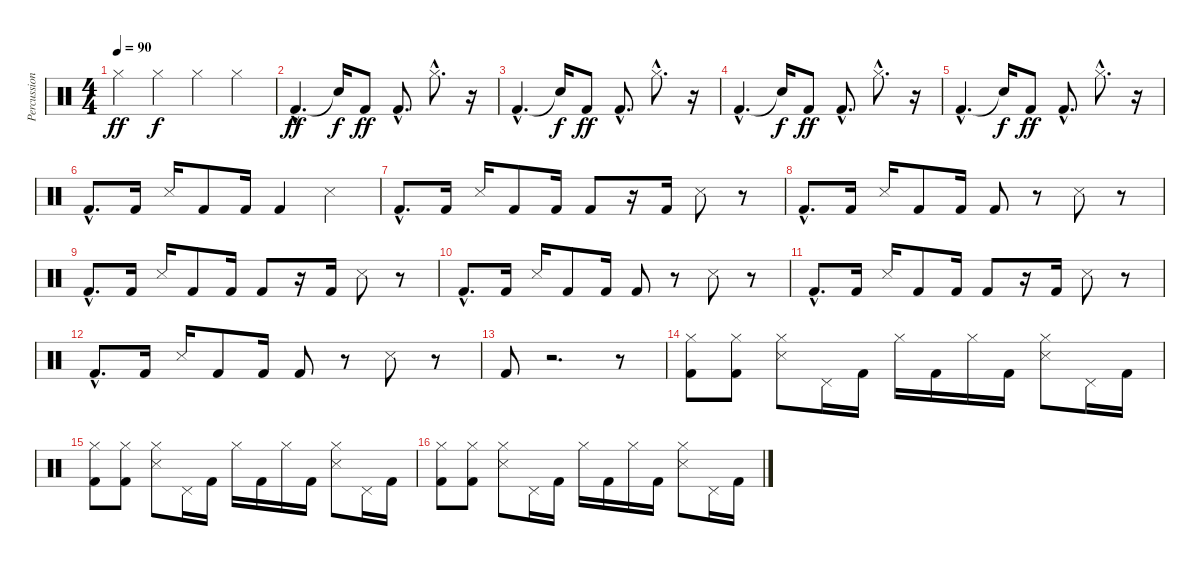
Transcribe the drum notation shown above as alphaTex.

\track ("Percussions" "Percussion") {instrument percussion}
\staff {score}
\articulation defaults
\ts (4 4)
\tempo 90
\clef neutral
\ks c "Hi-Hat (closed)".4{dy ff} "Hi-Hat (closed)".4{dy f} "Hi-Hat (closed)".4 "Hi-Hat (closed)".4
|
"Kick (hit) 2"{hac}.4{d dy ff} "Snare (hit)"{t}.16{dy f} "Kick (hit) 2".8{dy ff} "Kick (hit) 2"{hac}.8{d} "Hi-Hat (closed)"{hac}.8{d} r.16 |
"Kick (hit) 2"{hac}.4{d} "Snare (hit)"{t}.16{dy f} "Kick (hit) 2".8{dy ff} "Kick (hit) 2"{hac}.8{d} "Hi-Hat (closed)"{hac}.8{d} r.16 |
"Kick (hit) 2"{hac}.4{d} "Snare (hit)"{t}.16{dy f} "Kick (hit) 2".8{dy ff} "Kick (hit) 2"{hac}.8{d} "Hi-Hat (closed)"{hac}.8{d} r.16 |
"Kick (hit) 2"{hac}.4{d} "Snare (hit)"{t}.16{dy f} "Kick (hit) 2".8{dy ff} "Kick (hit) 2"{hac}.8{d} "Hi-Hat (closed)"{hac}.8{d} r.16 |
"Kick (hit) 2"{hac}.8{d} "Kick (hit) 2".16 "Snare (side stick) 3".16 "Kick (hit) 2".8 "Kick (hit) 2".16 "Kick (hit) 2".4 "Snare (side stick) 3".4 |
"Kick (hit) 2"{hac}.8{d} "Kick (hit) 2".16 "Snare (side stick) 3".16 "Kick (hit) 2".8 "Kick (hit) 2".16 "Kick (hit) 2".8 r.16 "Kick (hit) 2".16 "Snare (side stick) 3".8 r.8 |
"Kick (hit) 2"{hac}.8{d} "Kick (hit) 2".16 "Snare (side stick) 3".16 "Kick (hit) 2".8 "Kick (hit) 2".16 "Kick (hit) 2".8 r.8 "Snare (side stick) 3".8 r.8 |
"Kick (hit) 2"{hac}.8{d} "Kick (hit) 2".16 "Snare (side stick) 3".16 "Kick (hit) 2".8 "Kick (hit) 2".16 "Kick (hit) 2".8 r.16 "Kick (hit) 2".16 "Snare (side stick) 3".8 r.8 |
"Kick (hit) 2"{hac}.8{d} "Kick (hit) 2".16 "Snare (side stick) 3".16 "Kick (hit) 2".8 "Kick (hit) 2".16 "Kick (hit) 2".8 r.8 "Snare (side stick) 3".8 r.8 |
"Kick (hit) 2"{hac}.8{d} "Kick (hit) 2".16 "Snare (side stick) 3".16 "Kick (hit) 2".8 "Kick (hit) 2".16 "Kick (hit) 2".8 r.16 "Kick (hit) 2".16 "Snare (side stick) 3".8 r.8 |
"Kick (hit) 2"{hac}.8{d} "Kick (hit) 2".16 "Snare (side stick) 3".16 "Kick (hit) 2".8 "Kick (hit) 2".16 "Kick (hit) 2".8 r.8 "Snare (side stick) 3".8 r.8 |
"Kick (hit) 2".8 r.2{d} r.8 |
("Kick (hit) 2" "Hi-Hat (closed)").8 ("Kick (hit) 2" "Hi-Hat (closed)").8 ("Snare (side stick) 3" "Hi-Hat (closed)").8 "Pedal Hi-Hat (hit)".16 "Kick (hit) 2".16 "Hi-Hat (closed)".16 "Kick (hit) 2".16 "Hi-Hat (closed)".16 "Kick (hit) 2".16 ("Snare (side stick) 3" "Hi-Hat (closed)").8 "Pedal Hi-Hat (hit)".16 "Kick (hit) 2".16 |
("Kick (hit) 2" "Hi-Hat (closed)").8 ("Kick (hit) 2" "Hi-Hat (closed)").8 ("Snare (side stick) 3" "Hi-Hat (closed)").8 "Pedal Hi-Hat (hit)".16 "Kick (hit) 2".16 "Hi-Hat (closed)".16 "Kick (hit) 2".16 "Hi-Hat (closed)".16 "Kick (hit) 2".16 ("Snare (side stick) 3" "Hi-Hat (closed)").8 "Pedal Hi-Hat (hit)".16 "Kick (hit) 2".16 |
("Kick (hit) 2" "Hi-Hat (closed)").8 ("Kick (hit) 2" "Hi-Hat (closed)").8 ("Snare (side stick) 3" "Hi-Hat (closed)").8 "Pedal Hi-Hat (hit)".16 "Kick (hit) 2".16 "Hi-Hat (closed)".16 "Kick (hit) 2".16 "Hi-Hat (closed)".16 "Kick (hit) 2".16 ("Snare (side stick) 3" "Hi-Hat (closed)").8 "Pedal Hi-Hat (hit)".16 "Kick (hit) 2".16
